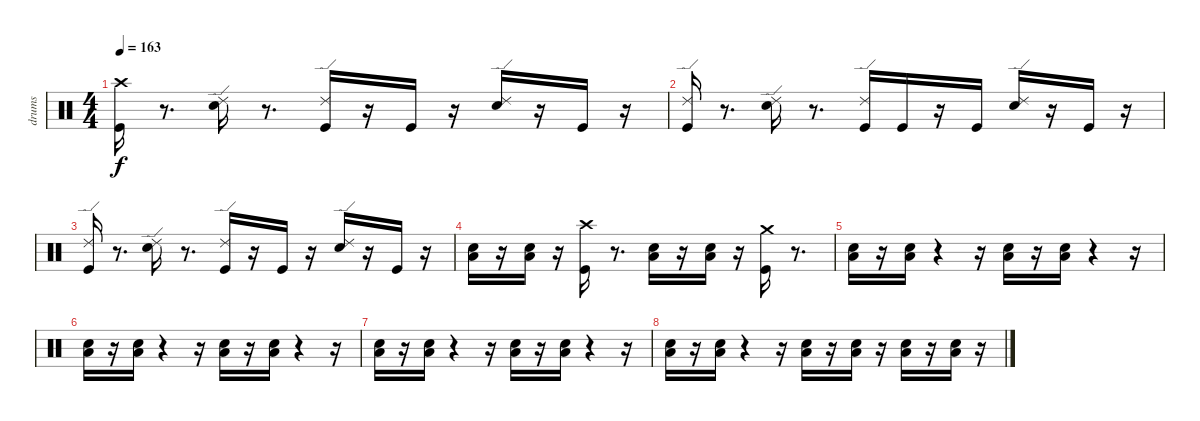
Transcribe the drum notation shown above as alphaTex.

\track ("drums" "drums") {instrument percussion}
\staff {score}
\articulation defaults
\ts (4 4)
\tempo 163
\clef neutral
\ks c
("Crash high (hit)" "Kick (hit)").16{dy f} r.8{d} ("Ride (edge) 2" "Snare (hit) 2").16 r.8{d} ("Ride (edge) 2" "Kick (hit)").16 r.16 "Kick (hit)".16 r.16 ("Ride (edge) 2" "Snare (hit) 2").16 r.16 "Kick (hit)".16 r.16 |
("Ride (edge) 2" "Kick (hit)").16 r.8{d} ("Ride (edge) 2" "Snare (hit) 2").16 r.8{d} ("Ride (edge) 2" "Kick (hit)").16 "Kick (hit)".16 r.16 "Kick (hit)".16 ("Ride (edge) 2" "Snare (hit) 2").16 r.16 "Kick (hit)".16 r.16 |
("Ride (edge) 2" "Kick (hit)").16 r.8{d} ("Ride (edge) 2" "Snare (hit) 2").16 r.8{d} ("Ride (edge) 2" "Kick (hit)").16 r.16 "Kick (hit)".16 r.16 ("Ride (edge) 2" "Snare (hit) 2").16 r.16 "Kick (hit)".16 r.16 |
("Snare (hit) 2" "Low Tom (hit)").16 r.16 ("Snare (hit) 2" "Low Tom (hit)").16 r.16 ("Kick (hit)" "Crash high (hit)").16 r.8{d} ("Snare (hit) 2" "Low Tom (hit)").16 r.16 ("Snare (hit) 2" "Low Tom (hit)").16 r.16 ("Crash medium (hit)" "Kick (hit)").16 r.8{d} |
("Snare (hit) 2" "Low Floor Tom (hit)").16 r.16 ("Snare (hit) 2" "Low Floor Tom (hit)").16 r.4 r.16 ("Snare (hit) 2" "Low Floor Tom (hit)").16 r.16 ("Snare (hit) 2" "Low Floor Tom (hit)").16 r.4 r.16 |
("Snare (hit) 2" "Low Floor Tom (hit)").16 r.16 ("Snare (hit) 2" "Low Floor Tom (hit)").16 r.4 r.16 ("Snare (hit) 2" "Low Floor Tom (hit)").16 r.16 ("Snare (hit) 2" "Low Floor Tom (hit)").16 r.4 r.16 |
("Snare (hit) 2" "Low Floor Tom (hit)").16 r.16 ("Snare (hit) 2" "Low Floor Tom (hit)").16 r.4 r.16 ("Snare (hit) 2" "Low Floor Tom (hit)").16 r.16 ("Snare (hit) 2" "Low Floor Tom (hit)").16 r.4 r.16 |
("Snare (hit) 2" "Low Floor Tom (hit)").16 r.16 ("Snare (hit) 2" "Low Floor Tom (hit)").16 r.4 r.16 ("Snare (hit) 2" "Low Floor Tom (hit)").16 r.16 ("Snare (hit) 2" "Low Floor Tom (hit)").16 r.16 ("Low Floor Tom (hit)" "Snare (hit) 2").16 r.16 ("Low Floor Tom (hit)" "Snare (hit) 2").16 r.16
